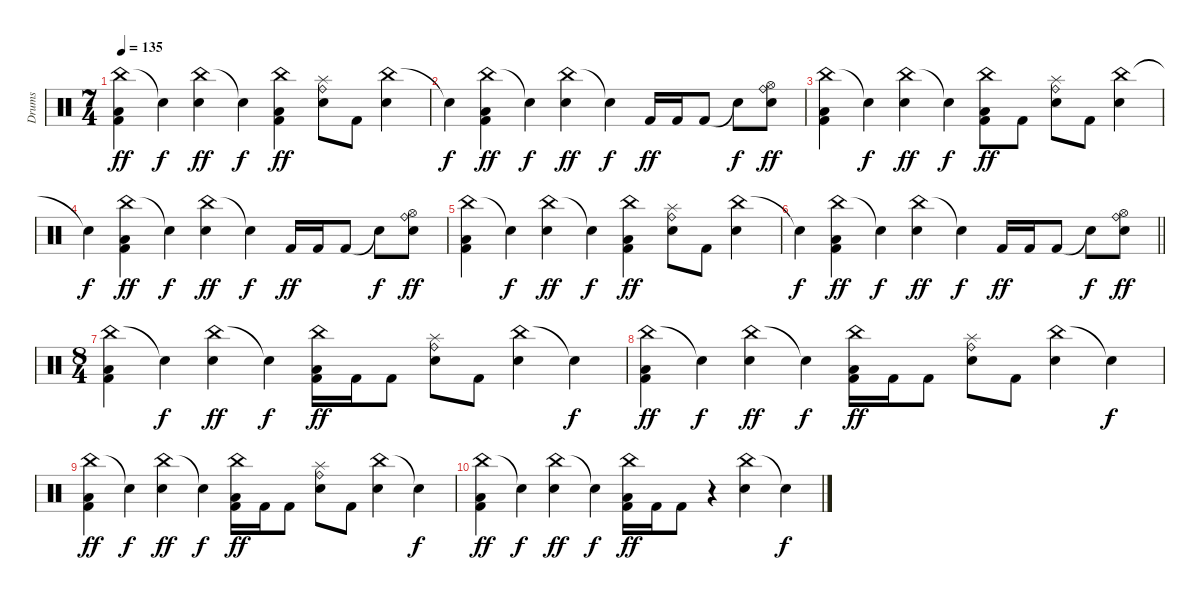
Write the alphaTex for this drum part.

\track ("Drums" "Drums") {instrument percussion}
\staff {score}
\articulation defaults
\ts (7 4)
\tempo 135
\clef neutral
\ks c
("China (hit)" "Low Floor Tom (hit)" "Kick (hit) 2").4{dy ff} "Snare (hit)"{t}.4{dy f} ("China (hit)" "Snare (hit) 2").4{dy ff} "Snare (hit)"{t}.4{dy f} ("China (hit)" "Low Floor Tom (hit)" "Kick (hit) 2").4{dy ff} ("Ride (bell)" "Splash (hit)" "Snare (hit) 2").8 "Kick (hit) 2".8 ("China (hit)" "Snare (hit) 2").4 |
"Snare (hit)"{t}.4{dy f} ("China (hit)" "Low Floor Tom (hit)" "Kick (hit) 2").4{dy ff} "Snare (hit)"{t}.4{dy f} ("China (hit)" "Snare (hit) 2").4{dy ff} "Snare (hit)"{t}.4{dy f} "Kick (hit) 2".16{dy ff} "Kick (hit) 2".16 "Kick (hit) 2".8 "Snare (hit)"{t}.8{dy f} ("Ride (bell)" "Hi-Hat (open)" "Snare (hit) 2").8{dy ff} |
("China (hit)" "Low Floor Tom (hit)" "Kick (hit) 2").4 "Snare (hit)"{t}.4{dy f} ("China (hit)" "Snare (hit) 2").4{dy ff} "Snare (hit)"{t}.4{dy f} ("China (hit)" "Low Floor Tom (hit)" "Kick (hit) 2").8{dy ff} "Kick (hit) 2".8 ("Ride (bell)" "Splash (hit)" "Snare (hit) 2").8 "Kick (hit) 2".8 ("China (hit)" "Snare (hit) 2").4 |
"Snare (hit)"{t}.4{dy f} ("China (hit)" "Low Floor Tom (hit)" "Kick (hit) 2").4{dy ff} "Snare (hit)"{t}.4{dy f} ("China (hit)" "Snare (hit) 2").4{dy ff} "Snare (hit)"{t}.4{dy f} "Kick (hit) 2".16{dy ff} "Kick (hit) 2".16 "Kick (hit) 2".8 "Snare (hit)"{t}.8{dy f} ("Ride (bell)" "Hi-Hat (open)" "Snare (hit) 2").8{dy ff} |
("China (hit)" "Low Floor Tom (hit)" "Kick (hit) 2").4 "Snare (hit)"{t}.4{dy f} ("China (hit)" "Snare (hit) 2").4{dy ff} "Snare (hit)"{t}.4{dy f} ("China (hit)" "Low Floor Tom (hit)" "Kick (hit) 2").4{dy ff} ("Ride (bell)" "Splash (hit)" "Snare (hit) 2").8 "Kick (hit) 2".8 ("China (hit)" "Snare (hit) 2").4 |
\barLineRight lightlight "Snare (hit)"{t}.4{dy f}
("China (hit)" "Low Floor Tom (hit)" "Kick (hit) 2").4{dy ff} "Snare (hit)"{t}.4{dy f} ("China (hit)" "Snare (hit) 2").4{dy ff} "Snare (hit)"{t}.4{dy f} "Kick (hit) 2".16{dy ff} "Kick (hit) 2".16 "Kick (hit) 2".8 "Snare (hit)"{t}.8{dy f} ("Ride (bell)" "Hi-Hat (open)" "Snare (hit) 2").8{dy ff} |
\ts (8 4)
\section ("" "")
("China (hit)" "Low Floor Tom (hit)" "Kick (hit) 2").4 "Snare (hit)"{t}.4{dy f} ("China (hit)" "Snare (hit) 2").4{dy ff} "Snare (hit)"{t}.4{dy f} ("China (hit)" "Low Floor Tom (hit)" "Kick (hit) 2").16{dy ff} "Kick (hit) 2".16 "Kick (hit) 2".8 ("Ride (bell)" "Splash (hit)" "Snare (hit) 2").8 "Kick (hit) 2".8 ("China (hit)" "Snare (hit) 2").4 "Snare (hit)"{t}.4{dy f} |
("China (hit)" "Low Floor Tom (hit)" "Kick (hit) 2").4{dy ff} "Snare (hit)"{t}.4{dy f} ("China (hit)" "Snare (hit) 2").4{dy ff} "Snare (hit)"{t}.4{dy f} ("China (hit)" "Low Floor Tom (hit)" "Kick (hit) 2").16{dy ff} "Kick (hit) 2".16 "Kick (hit) 2".8 ("Ride (bell)" "Splash (hit)" "Snare (hit) 2").8 "Kick (hit) 2".8 ("China (hit)" "Snare (hit) 2").4 "Snare (hit)"{t}.4{dy f} |
("China (hit)" "Low Floor Tom (hit)" "Kick (hit) 2").4{dy ff} "Snare (hit)"{t}.4{dy f} ("China (hit)" "Snare (hit) 2").4{dy ff} "Snare (hit)"{t}.4{dy f} ("China (hit)" "Low Floor Tom (hit)" "Kick (hit) 2").16{dy ff} "Kick (hit) 2".16 "Kick (hit) 2".8 ("Ride (bell)" "Splash (hit)" "Snare (hit) 2").8 "Kick (hit) 2".8 ("China (hit)" "Snare (hit) 2").4 "Snare (hit)"{t}.4{dy f} |
("China (hit)" "Low Floor Tom (hit)" "Kick (hit) 2").4{dy ff} "Snare (hit)"{t}.4{dy f} ("China (hit)" "Snare (hit) 2").4{dy ff} "Snare (hit)"{t}.4{dy f} ("China (hit)" "Low Floor Tom (hit)" "Kick (hit) 2").16{dy ff} "Kick (hit) 2".16 "Kick (hit) 2".8 r.4 ("China (hit)" "Snare (hit) 2").4 "Snare (hit)"{t}.4{dy f}
